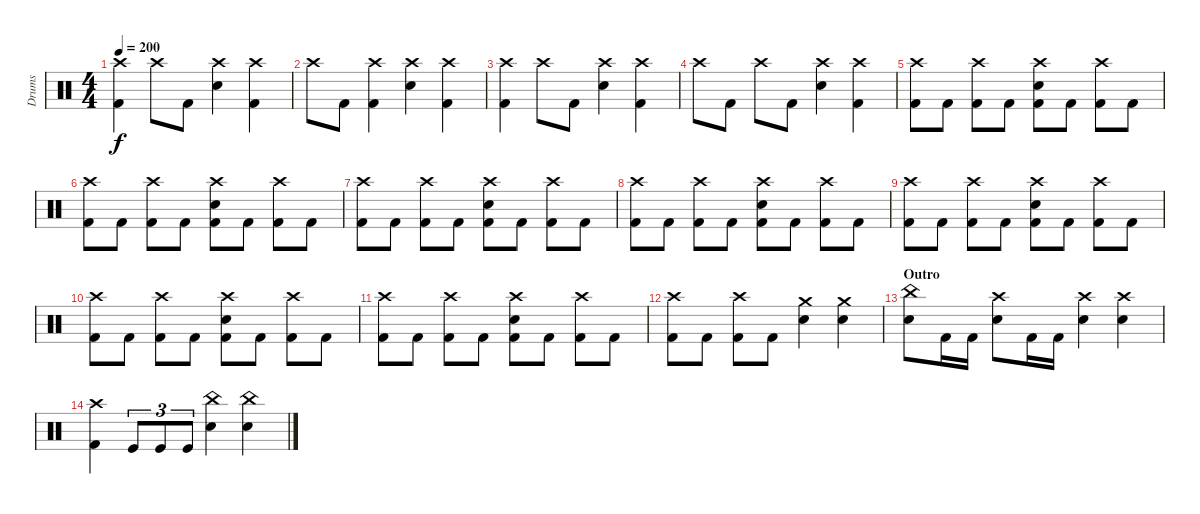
\track ("Drums" "Drums") {instrument percussion}
\staff {score}
\articulation defaults
\ts (4 4)
\tempo 200
\clef neutral
\ks c
("Crash high (hit)" "Kick (hit) 2").4{dy f} "Crash high (hit)".8 "Kick (hit) 2".8 ("Crash high (hit)" "Electric Snare (hit)").4 ("Crash high (hit)" "Kick (hit) 2").4 |
"Crash high (hit)".8 "Kick (hit) 2".8 ("Crash high (hit)" "Kick (hit) 2").4 ("Crash high (hit)" "Electric Snare (hit)").4 ("Crash high (hit)" "Kick (hit) 2").4 |
("Crash high (hit)" "Kick (hit) 2").4 "Crash high (hit)".8 "Kick (hit) 2".8 ("Crash high (hit)" "Electric Snare (hit)").4 ("Crash high (hit)" "Kick (hit) 2").4 |
"Crash high (hit)".8 "Kick (hit) 2".8 "Crash high (hit)".8 "Kick (hit) 2".8 ("Crash high (hit)" "Electric Snare (hit)").4 ("Crash high (hit)" "Kick (hit) 2").4 |
("Crash high (hit)" "Kick (hit) 2").8 "Kick (hit) 2".8 ("Crash high (hit)" "Kick (hit) 2").8 "Kick (hit) 2".8 ("Crash high (hit)" "Electric Snare (hit)" "Kick (hit) 2").8 "Kick (hit) 2".8 ("Crash high (hit)" "Kick (hit) 2").8 "Kick (hit) 2".8 |
("Crash high (hit)" "Kick (hit) 2").8 "Kick (hit) 2".8 ("Crash high (hit)" "Kick (hit) 2").8 "Kick (hit) 2".8 ("Crash high (hit)" "Electric Snare (hit)" "Kick (hit) 2").8 "Kick (hit) 2".8 ("Crash high (hit)" "Kick (hit) 2").8 "Kick (hit) 2".8 |
("Crash high (hit)" "Kick (hit) 2").8 "Kick (hit) 2".8 ("Crash high (hit)" "Kick (hit) 2").8 "Kick (hit) 2".8 ("Crash high (hit)" "Electric Snare (hit)" "Kick (hit) 2").8 "Kick (hit) 2".8 ("Crash high (hit)" "Kick (hit) 2").8 "Kick (hit) 2".8 |
("Crash high (hit)" "Kick (hit) 2").8 "Kick (hit) 2".8 ("Crash high (hit)" "Kick (hit) 2").8 "Kick (hit) 2".8 ("Crash high (hit)" "Electric Snare (hit)" "Kick (hit) 2").8 "Kick (hit) 2".8 ("Crash high (hit)" "Kick (hit) 2").8 "Kick (hit) 2".8 |
("Crash high (hit)" "Kick (hit) 2").8 "Kick (hit) 2".8 ("Crash high (hit)" "Kick (hit) 2").8 "Kick (hit) 2".8 ("Crash high (hit)" "Electric Snare (hit)" "Kick (hit) 2").8 "Kick (hit) 2".8 ("Crash high (hit)" "Kick (hit) 2").8 "Kick (hit) 2".8 |
("Crash high (hit)" "Kick (hit) 2").8 "Kick (hit) 2".8 ("Crash high (hit)" "Kick (hit) 2").8 "Kick (hit) 2".8 ("Crash high (hit)" "Electric Snare (hit)" "Kick (hit) 2").8 "Kick (hit) 2".8 ("Crash high (hit)" "Kick (hit) 2").8 "Kick (hit) 2".8 |
("Crash high (hit)" "Kick (hit) 2").8 "Kick (hit) 2".8 ("Crash high (hit)" "Kick (hit) 2").8 "Kick (hit) 2".8 ("Crash high (hit)" "Electric Snare (hit)" "Kick (hit) 2").8 "Kick (hit) 2".8 ("Crash high (hit)" "Kick (hit) 2").8 "Kick (hit) 2".8 |
("Crash high (hit)" "Kick (hit) 2").8 "Kick (hit) 2".8 ("Crash high (hit)" "Kick (hit) 2").8 "Kick (hit) 2".8 ("Crash medium (hit)" "Electric Snare (hit)").4 ("Crash medium (hit)" "Electric Snare (hit)").4 |
\section ("" "Outro")
("China (hit)" "Electric Snare (hit)").8 "Kick (hit) 2".16 "Kick (hit) 2".16 ("Crash high (hit)" "Electric Snare (hit)").8 "Kick (hit) 2".16 "Kick (hit) 2".16 ("Crash high (hit)" "Electric Snare (hit)").4 ("Crash high (hit)" "Electric Snare (hit)").4 |
("Crash high (hit)" "Kick (hit) 2").4 "Kick (hit)".8{tu (3 2)} "Kick (hit)".8{tu (3 2)} "Kick (hit)".8{tu (3 2)} ("China (hit)" "Electric Snare (hit)").4 ("China (hit)" "Electric Snare (hit)").4
